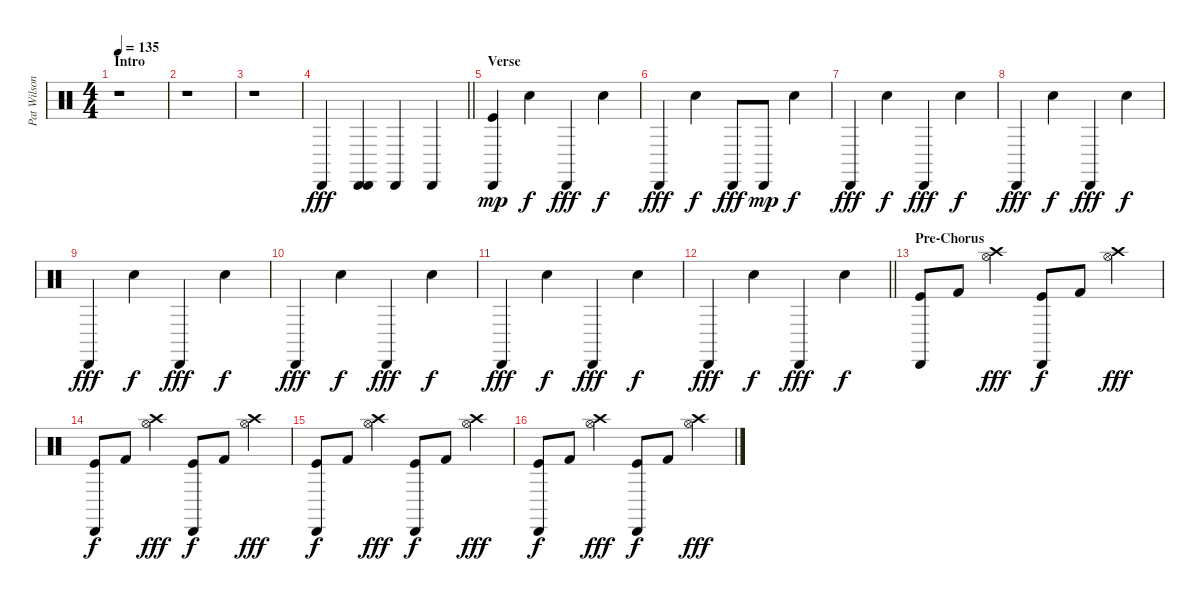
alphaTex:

\track ("Pat Wilson" "Pat Wilson") {instrument percussion}
\staff {score}
\articulation defaults
\ts (4 4)
\section ("" "Intro")
\tempo 135
\clef neutral
\ks c
r.1{dy fff} |
r.1 |
r.1 |
\barLineRight lightlight "Cabasa (hit)".4
("Cabasa (hit)" "Cabasa (hit)").4 "Cabasa (hit)".4 "Cabasa (hit)".4 |
\section ("" "Verse")
("Cabasa (hit)" "Kick (hit)").4{dy mp} "Snare (hit) 2".4{dy f} "Cabasa (hit)".4{dy fff} "Snare (hit) 2".4{dy f} |
"Cabasa (hit)".4{dy fff} "Snare (hit) 2".4{dy f} "Cabasa (hit)".8{dy fff} "Cabasa (hit)".8{dy mp} "Snare (hit) 2".4{dy f} |
"Cabasa (hit)".4{dy fff} "Snare (hit) 2".4{dy f} "Cabasa (hit)".4{dy fff} "Snare (hit) 2".4{dy f} |
"Cabasa (hit)".4{dy fff} "Snare (hit) 2".4{dy f} "Cabasa (hit)".4{dy fff} "Snare (hit) 2".4{dy f} |
"Cabasa (hit)".4{dy fff} "Snare (hit) 2".4{dy f} "Cabasa (hit)".4{dy fff} "Snare (hit) 2".4{dy f} |
"Cabasa (hit)".4{dy fff} "Snare (hit) 2".4{dy f} "Cabasa (hit)".4{dy fff} "Snare (hit) 2".4{dy f} |
"Cabasa (hit)".4{dy fff} "Snare (hit) 2".4{dy f} "Cabasa (hit)".4{dy fff} "Snare (hit) 2".4{dy f} |
\barLineRight lightlight "Cabasa (hit)".4{dy fff} "Snare (hit) 2".4{dy f} "Cabasa (hit)".4{dy fff} "Snare (hit) 2".4{dy f}
|
\section ("" "Pre-Chorus")
("Cabasa (hit)" "Kick (hit)").8 "Kick (hit) 2".8 ("Hi-Hat (open)" "Crash high (hit)").4{dy fff} ("Cabasa (hit)" "Kick (hit)").8{dy f} "Kick (hit) 2".8 ("Hi-Hat (open)" "Crash high (hit)").4{dy fff} |
("Cabasa (hit)" "Kick (hit)").8{dy f} "Kick (hit) 2".8 ("Hi-Hat (open)" "Crash high (hit)").4{dy fff} ("Cabasa (hit)" "Kick (hit)").8{dy f} "Kick (hit) 2".8 ("Hi-Hat (open)" "Crash high (hit)").4{dy fff} |
("Cabasa (hit)" "Kick (hit)").8{dy f} "Kick (hit) 2".8 ("Hi-Hat (open)" "Crash high (hit)").4{dy fff} ("Cabasa (hit)" "Kick (hit)").8{dy f} "Kick (hit) 2".8 ("Hi-Hat (open)" "Crash high (hit)").4{dy fff} |
("Cabasa (hit)" "Kick (hit)").8{dy f} "Kick (hit) 2".8 ("Hi-Hat (open)" "Crash high (hit)").4{dy fff} ("Cabasa (hit)" "Kick (hit)").8{dy f} "Kick (hit) 2".8 ("Hi-Hat (open)" "Crash high (hit)").4{dy fff}
